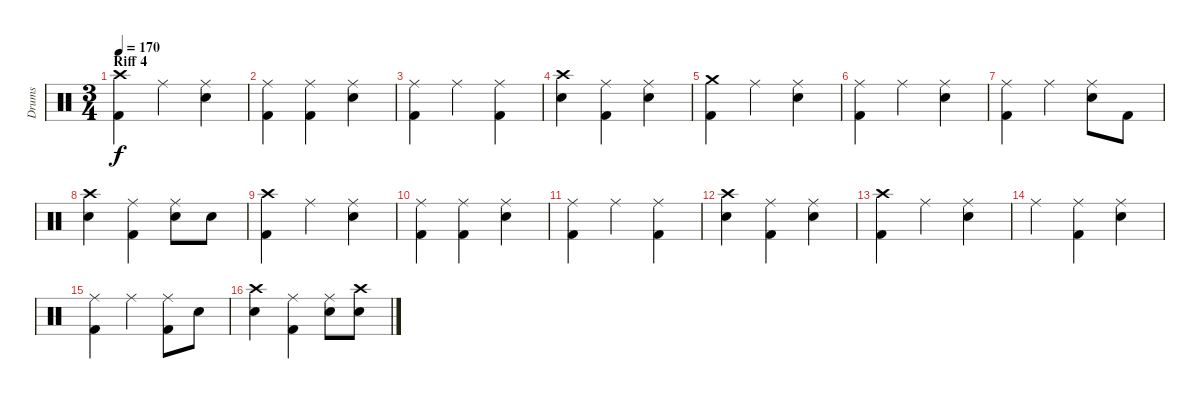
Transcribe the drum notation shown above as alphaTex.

\track ("Drums" "Drums") {instrument percussion}
\staff {score}
\articulation defaults
\ts (3 4)
\section ("" "Riff 4")
\tempo 170
\clef neutral
\ks c
("Crash high (hit)" "Kick (hit) 2").4{dy f} "Ride (middle)".4 ("Ride (middle)" "Electric Snare (hit)").4 |
("Ride (middle)" "Kick (hit) 2").4 ("Ride (middle)" "Kick (hit) 2").4 ("Ride (middle)" "Electric Snare (hit)").4 |
("Ride (middle)" "Kick (hit) 2").4 "Ride (middle)".4 ("Ride (middle)" "Kick (hit) 2").4 |
("Crash high (hit)" "Electric Snare (hit)").4 ("Ride (middle)" "Kick (hit) 2").4 ("Ride (middle)" "Electric Snare (hit)").4 |
("Crash medium (hit)" "Kick (hit) 2").4 "Ride (middle)".4 ("Ride (middle)" "Electric Snare (hit)").4 |
("Ride (middle)" "Kick (hit) 2").4 "Ride (middle)".4 ("Ride (middle)" "Electric Snare (hit)").4 |
("Ride (middle)" "Kick (hit) 2").4 "Ride (middle)".4 ("Ride (middle)" "Electric Snare (hit)").8 "Kick (hit) 2".8 |
("Crash high (hit)" "Electric Snare (hit)").4 ("Ride (middle)" "Kick (hit) 2").4 ("Ride (middle)" "Electric Snare (hit)").8 "Electric Snare (hit)".8 |
("Crash high (hit)" "Kick (hit) 2").4 "Ride (middle)".4 ("Ride (middle)" "Electric Snare (hit)").4 |
("Ride (middle)" "Kick (hit) 2").4 ("Ride (middle)" "Kick (hit) 2").4 ("Ride (middle)" "Electric Snare (hit)").4 |
("Ride (middle)" "Kick (hit) 2").4 "Ride (middle)".4 ("Ride (middle)" "Kick (hit) 2").4 |
("Crash high (hit)" "Electric Snare (hit)").4 ("Ride (middle)" "Kick (hit) 2").4 ("Ride (middle)" "Electric Snare (hit)").4 |
("Crash high (hit)" "Kick (hit) 2").4 "Ride (middle)".4 ("Ride (middle)" "Electric Snare (hit)").4 |
"Ride (middle)".4 ("Ride (middle)" "Kick (hit) 2").4 ("Ride (middle)" "Electric Snare (hit)").4 |
("Ride (middle)" "Kick (hit) 2").4 "Ride (middle)".4 ("Ride (middle)" "Kick (hit) 2").8 "Electric Snare (hit)".8 |
("Crash high (hit)" "Electric Snare (hit)").4 ("Ride (middle)" "Kick (hit) 2").4 ("Ride (middle)" "Electric Snare (hit)").8 ("Crash high (hit)" "Electric Snare (hit)").8
